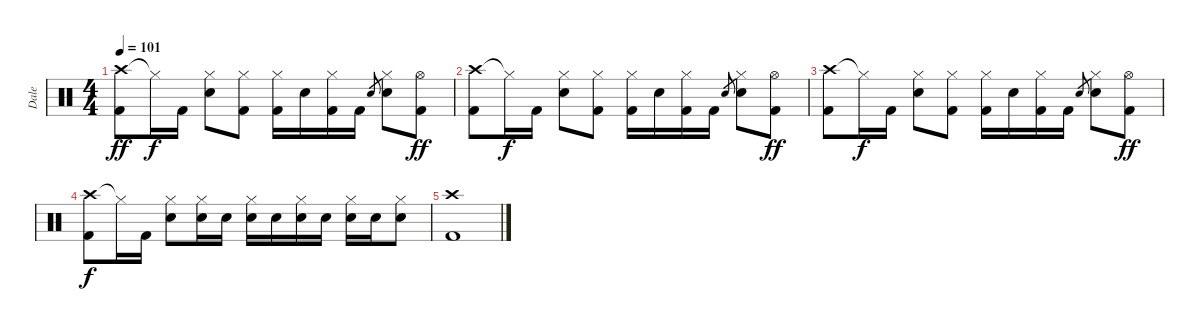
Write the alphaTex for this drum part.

\track ("Dale" "Dale") {instrument percussion}
\staff {score}
\articulation defaults
\ts (4 4)
\tempo 101
\clef neutral
\ks c
("Crash high (hit)" "Kick (hit) 2").8{dy ff} "Hi-Hat (closed)"{t}.16{dy f} "Kick (hit) 2".16 ("Hi-Hat (closed)" "Snare (hit) 2").8 ("Hi-Hat (closed)" "Kick (hit) 2").8 ("Hi-Hat (closed)" "Kick (hit) 2").16 "Snare (hit) 2".16 ("Hi-Hat (closed)" "Kick (hit) 2").16 "Kick (hit) 2".16 "Snare (hit) 2".8{gr} ("Hi-Hat (closed)" "Snare (hit) 2").8 ("Hi-Hat (open)" "Kick (hit) 2").8{dy ff} |
("Crash high (hit)" "Kick (hit) 2").8 "Hi-Hat (closed)"{t}.16{dy f} "Kick (hit) 2".16 ("Hi-Hat (closed)" "Snare (hit) 2").8 ("Hi-Hat (closed)" "Kick (hit) 2").8 ("Hi-Hat (closed)" "Kick (hit) 2").16 "Snare (hit) 2".16 ("Hi-Hat (closed)" "Kick (hit) 2").16 "Kick (hit) 2".16 "Snare (hit) 2".8{gr} ("Hi-Hat (closed)" "Snare (hit) 2").8 ("Hi-Hat (open)" "Kick (hit) 2").8{dy ff} |
("Crash high (hit)" "Kick (hit) 2").8 "Hi-Hat (closed)"{t}.16{dy f} "Kick (hit) 2".16 ("Hi-Hat (closed)" "Snare (hit) 2").8 ("Hi-Hat (closed)" "Kick (hit) 2").8 ("Hi-Hat (closed)" "Kick (hit) 2").16 "Snare (hit) 2".16 ("Hi-Hat (closed)" "Kick (hit) 2").16 "Kick (hit) 2".16 "Snare (hit) 2".8{gr} ("Hi-Hat (closed)" "Snare (hit) 2").8 ("Hi-Hat (open)" "Kick (hit) 2").8{dy ff} |
("Crash high (hit)" "Kick (hit) 2").8{dy f} "Hi-Hat (closed)"{t}.16 "Kick (hit) 2".16 ("Hi-Hat (closed)" "Snare (hit) 2").8 ("Hi-Hat (closed)" "Snare (hit) 2").16 "Snare (hit) 2".16 ("Hi-Hat (closed)" "Snare (hit) 2").16 "Snare (hit) 2".16 ("Hi-Hat (closed)" "Snare (hit) 2").16 "Snare (hit) 2".16 ("Hi-Hat (closed)" "Snare (hit) 2").16 "Snare (hit) 2".16 ("Hi-Hat (closed)" "Snare (hit) 2").8 |
("Crash high (hit)" "Kick (hit) 2").1
